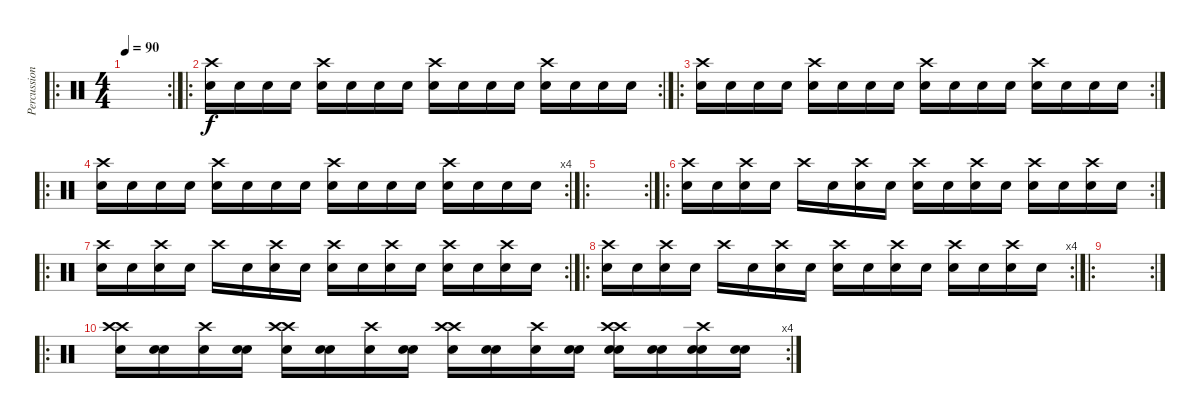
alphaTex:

\track ("Percussions" "Percussion") {instrument percussion}
\staff {score}
\articulation defaults
\ro
\rc 2
\ts (4 4)
\tempo 90
\clef neutral
\ks c
|
\ro
\rc 2
("Snare (hit) 2" "Crash high (hit)").16 "Snare (hit) 2".16 "Snare (hit) 2".16 "Snare (hit)".16 ("Electric Snare (hit)" "Crash high (hit)").16 "Snare (hit)".16 "Snare (hit)".16 "Snare (hit) 2".16 ("Snare (hit)" "Crash high (hit)").16 "Snare (hit)".16 "Electric Snare (hit)".16 "Snare (hit)".16 ("Snare (hit)" "Crash high (hit)").16 "Snare (hit)".16 "Snare (hit) 2".16 "Snare (hit)".16 |
\ro
\rc 2
("Snare (hit) 2" "Crash high (hit)").16 "Snare (hit) 2".16 "Snare (hit) 2".16 "Snare (hit)".16 ("Electric Snare (hit)" "Crash high (hit)").16 "Snare (hit)".16 "Snare (hit)".16 "Snare (hit) 2".16 ("Snare (hit)" "Crash high (hit)").16 "Snare (hit)".16 "Electric Snare (hit)".16 "Snare (hit)".16 ("Snare (hit)" "Crash high (hit)").16 "Snare (hit)".16 "Snare (hit) 2".16 "Snare (hit)".16 |
\ro
\rc 4
("Snare (hit) 2" "Crash high (hit)").16 "Snare (hit) 2".16 "Snare (hit) 2".16 "Snare (hit)".16 ("Electric Snare (hit)" "Crash high (hit)").16 "Snare (hit)".16 "Snare (hit)".16 "Snare (hit) 2".16 ("Snare (hit)" "Crash high (hit)").16 "Snare (hit)".16 "Electric Snare (hit)".16 "Snare (hit)".16 ("Snare (hit)" "Crash high (hit)").16 "Snare (hit)".16 "Snare (hit) 2".16 "Snare (hit)".16 |
\ro
\rc 2
|
\ro
\rc 2
("Snare (hit)" "Crash high (hit)").16 "Electric Snare (hit)".16 ("Snare (hit)" "Crash high (hit)").16 "Snare (hit) 2".16 "Crash high (hit)".16 "Electric Snare (hit)".16 ("Snare (hit)" "Crash high (hit)").16 "Snare (hit) 2".16 ("Snare (hit)" "Crash high (hit)").16 "Electric Snare (hit)".16 ("Snare (hit)" "Crash high (hit)").16 "Snare (hit) 2".16 ("Electric Snare (hit)" "Crash high (hit)").16 "Electric Snare (hit)".16 ("Electric Snare (hit)" "Crash high (hit)").16 "Snare (hit) 2".16 |
\ro
\rc 2
("Snare (hit)" "Crash high (hit)").16 "Electric Snare (hit)".16 ("Snare (hit)" "Crash high (hit)").16 "Snare (hit) 2".16 "Crash high (hit)".16 "Electric Snare (hit)".16 ("Snare (hit)" "Crash high (hit)").16 "Snare (hit) 2".16 ("Snare (hit)" "Crash high (hit)").16 "Electric Snare (hit)".16 ("Snare (hit)" "Crash high (hit)").16 "Snare (hit) 2".16 ("Electric Snare (hit)" "Crash high (hit)").16 "Electric Snare (hit)".16 ("Electric Snare (hit)" "Crash high (hit)").16 "Snare (hit) 2".16 |
\ro
\rc 4
("Snare (hit)" "Crash high (hit)").16 "Electric Snare (hit)".16 ("Snare (hit)" "Crash high (hit)").16 "Snare (hit) 2".16 "Crash high (hit)".16 "Electric Snare (hit)".16 ("Snare (hit)" "Crash high (hit)").16 "Snare (hit) 2".16 ("Snare (hit)" "Crash high (hit)").16 "Electric Snare (hit)".16 ("Snare (hit)" "Crash high (hit)").16 "Snare (hit) 2".16 ("Electric Snare (hit)" "Crash high (hit)").16 "Electric Snare (hit)".16 ("Electric Snare (hit)" "Crash high (hit)").16 "Snare (hit) 2".16 |
\ro
\rc 2
|
\ro
\rc 4
("Snare (hit) 2" "Crash high (hit)" "Crash high (hit)").16 ("Snare (hit) 2" "Electric Snare (hit)").16 ("Snare (hit) 2" "Crash high (hit)").16 ("Snare (hit)" "Snare (hit) 2").16 ("Electric Snare (hit)" "Crash high (hit)" "Crash high (hit)").16 ("Snare (hit)" "Electric Snare (hit)").16 ("Snare (hit)" "Crash high (hit)").16 ("Snare (hit) 2" "Snare (hit) 2").16 ("Snare (hit)" "Crash high (hit)" "Crash high (hit)").16 ("Snare (hit)" "Electric Snare (hit)").16 ("Electric Snare (hit)" "Crash high (hit)").16 ("Snare (hit)" "Snare (hit) 2").16 ("Snare (hit)" "Crash high (hit)" "Electric Snare (hit)" "Crash high (hit)").16 ("Snare (hit)" "Electric Snare (hit)").16 ("Snare (hit) 2" "Electric Snare (hit)" "Crash high (hit)").16 ("Snare (hit)" "Snare (hit) 2").16
